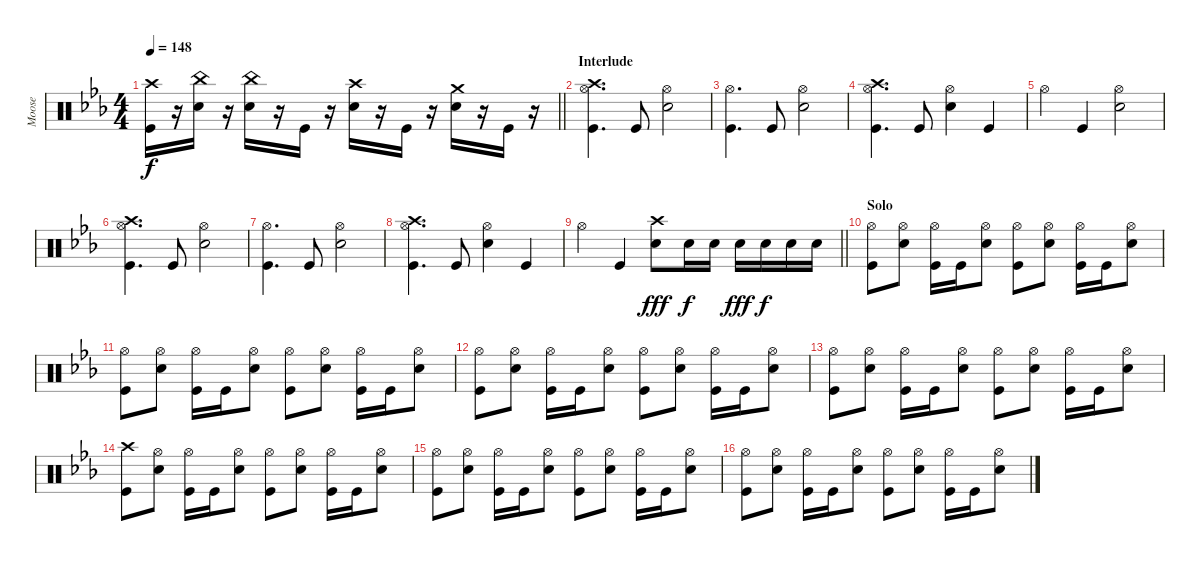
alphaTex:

\track ("Moose" "Moose") {instrument percussion}
\staff {score}
\articulation defaults
\ts (4 4)
\tempo 148
\clef neutral
\barLineRight lightlight
\ks eb
("Crash high (hit)" "Kick (hit)").16{dy f} r.16 ("China (hit)" "Snare (hit) 2").16 r.16 ("China (hit)" "Snare (hit) 2").16 r.16 "Kick (hit)".16 r.16 ("Crash high (hit)" "Snare (hit) 2").16 r.16 "Kick (hit)".16 r.16 ("Crash medium (hit)" "Snare (hit) 2").16 r.16 "Kick (hit)".16 r.16 |
\section ("" "Interlude")
("Crash high (hit)" "Hi-Hat (open)" "Kick (hit)").4{d} "Kick (hit)".8 ("Hi-Hat (open)" "Snare (hit) 2").2 |
("Hi-Hat (open)" "Kick (hit)").4{d} "Kick (hit)".8 ("Hi-Hat (open)" "Snare (hit) 2").2 |
("Crash high (hit)" "Hi-Hat (open)" "Kick (hit)").4{d} "Kick (hit)".8 ("Hi-Hat (open)" "Snare (hit) 2").4 "Kick (hit)".4 |
"Hi-Hat (open)".4 "Kick (hit)".4 ("Hi-Hat (open)" "Snare (hit) 2").2 |
("Crash high (hit)" "Hi-Hat (open)" "Kick (hit)").4{d} "Kick (hit)".8 ("Hi-Hat (open)" "Snare (hit) 2").2 |
("Hi-Hat (open)" "Kick (hit)").4{d} "Kick (hit)".8 ("Hi-Hat (open)" "Snare (hit) 2").2 |
("Crash high (hit)" "Hi-Hat (open)" "Kick (hit)").4{d} "Kick (hit)".8 ("Hi-Hat (open)" "Snare (hit) 2").4 "Kick (hit)".4 |
\barLineRight lightlight "Hi-Hat (open)".4 "Kick (hit)".4
("Crash high (hit)" "Snare (hit) 2").8{dy fff} "Snare (hit) 2".16{dy f} "Snare (hit) 2".16 "Snare (hit) 2".16{dy fff} "Snare (hit) 2".16{dy f} "Snare (hit) 2".16 "Snare (hit) 2".16 |
\section ("" "Solo")
("Hi-Hat (open)" "Kick (hit)").8 ("Hi-Hat (open)" "Snare (hit) 2").8 ("Hi-Hat (open)" "Kick (hit)").16 "Kick (hit)".16 ("Hi-Hat (open)" "Snare (hit) 2").8 ("Hi-Hat (open)" "Kick (hit)").8 ("Hi-Hat (open)" "Snare (hit) 2").8 ("Hi-Hat (open)" "Kick (hit)").16 "Kick (hit)".16 ("Hi-Hat (open)" "Snare (hit) 2").8 |
("Hi-Hat (open)" "Kick (hit)").8 ("Hi-Hat (open)" "Snare (hit) 2").8 ("Hi-Hat (open)" "Kick (hit)").16 "Kick (hit)".16 ("Hi-Hat (open)" "Snare (hit) 2").8 ("Hi-Hat (open)" "Kick (hit)").8 ("Hi-Hat (open)" "Snare (hit) 2").8 ("Hi-Hat (open)" "Kick (hit)").16 "Kick (hit)".16 ("Hi-Hat (open)" "Snare (hit) 2").8 |
("Hi-Hat (open)" "Kick (hit)").8 ("Hi-Hat (open)" "Snare (hit) 2").8 ("Hi-Hat (open)" "Kick (hit)").16 "Kick (hit)".16 ("Hi-Hat (open)" "Snare (hit) 2").8 ("Hi-Hat (open)" "Kick (hit)").8 ("Hi-Hat (open)" "Snare (hit) 2").8 ("Hi-Hat (open)" "Kick (hit)").16 "Kick (hit)".16 ("Hi-Hat (open)" "Snare (hit) 2").8 |
("Hi-Hat (open)" "Kick (hit)").8 ("Hi-Hat (open)" "Snare (hit) 2").8 ("Hi-Hat (open)" "Kick (hit)").16 "Kick (hit)".16 ("Hi-Hat (open)" "Snare (hit) 2").8 ("Hi-Hat (open)" "Kick (hit)").8 ("Hi-Hat (open)" "Snare (hit) 2").8 ("Hi-Hat (open)" "Kick (hit)").16 "Kick (hit)".16 ("Hi-Hat (open)" "Snare (hit) 2").8 |
("Crash high (hit)" "Kick (hit)").8 ("Hi-Hat (open)" "Snare (hit) 2").8 ("Hi-Hat (open)" "Kick (hit)").16 "Kick (hit)".16 ("Hi-Hat (open)" "Snare (hit) 2").8 ("Hi-Hat (open)" "Kick (hit)").8 ("Hi-Hat (open)" "Snare (hit) 2").8 ("Hi-Hat (open)" "Kick (hit)").16 "Kick (hit)".16 ("Hi-Hat (open)" "Snare (hit) 2").8 |
("Hi-Hat (open)" "Kick (hit)").8 ("Hi-Hat (open)" "Snare (hit) 2").8 ("Hi-Hat (open)" "Kick (hit)").16 "Kick (hit)".16 ("Hi-Hat (open)" "Snare (hit) 2").8 ("Hi-Hat (open)" "Kick (hit)").8 ("Hi-Hat (open)" "Snare (hit) 2").8 ("Hi-Hat (open)" "Kick (hit)").16 "Kick (hit)".16 ("Hi-Hat (open)" "Snare (hit) 2").8 |
("Hi-Hat (open)" "Kick (hit)").8 ("Hi-Hat (open)" "Snare (hit) 2").8 ("Hi-Hat (open)" "Kick (hit)").16 "Kick (hit)".16 ("Hi-Hat (open)" "Snare (hit) 2").8 ("Hi-Hat (open)" "Kick (hit)").8 ("Hi-Hat (open)" "Snare (hit) 2").8 ("Hi-Hat (open)" "Kick (hit)").16 "Kick (hit)".16 ("Hi-Hat (open)" "Snare (hit) 2").8
